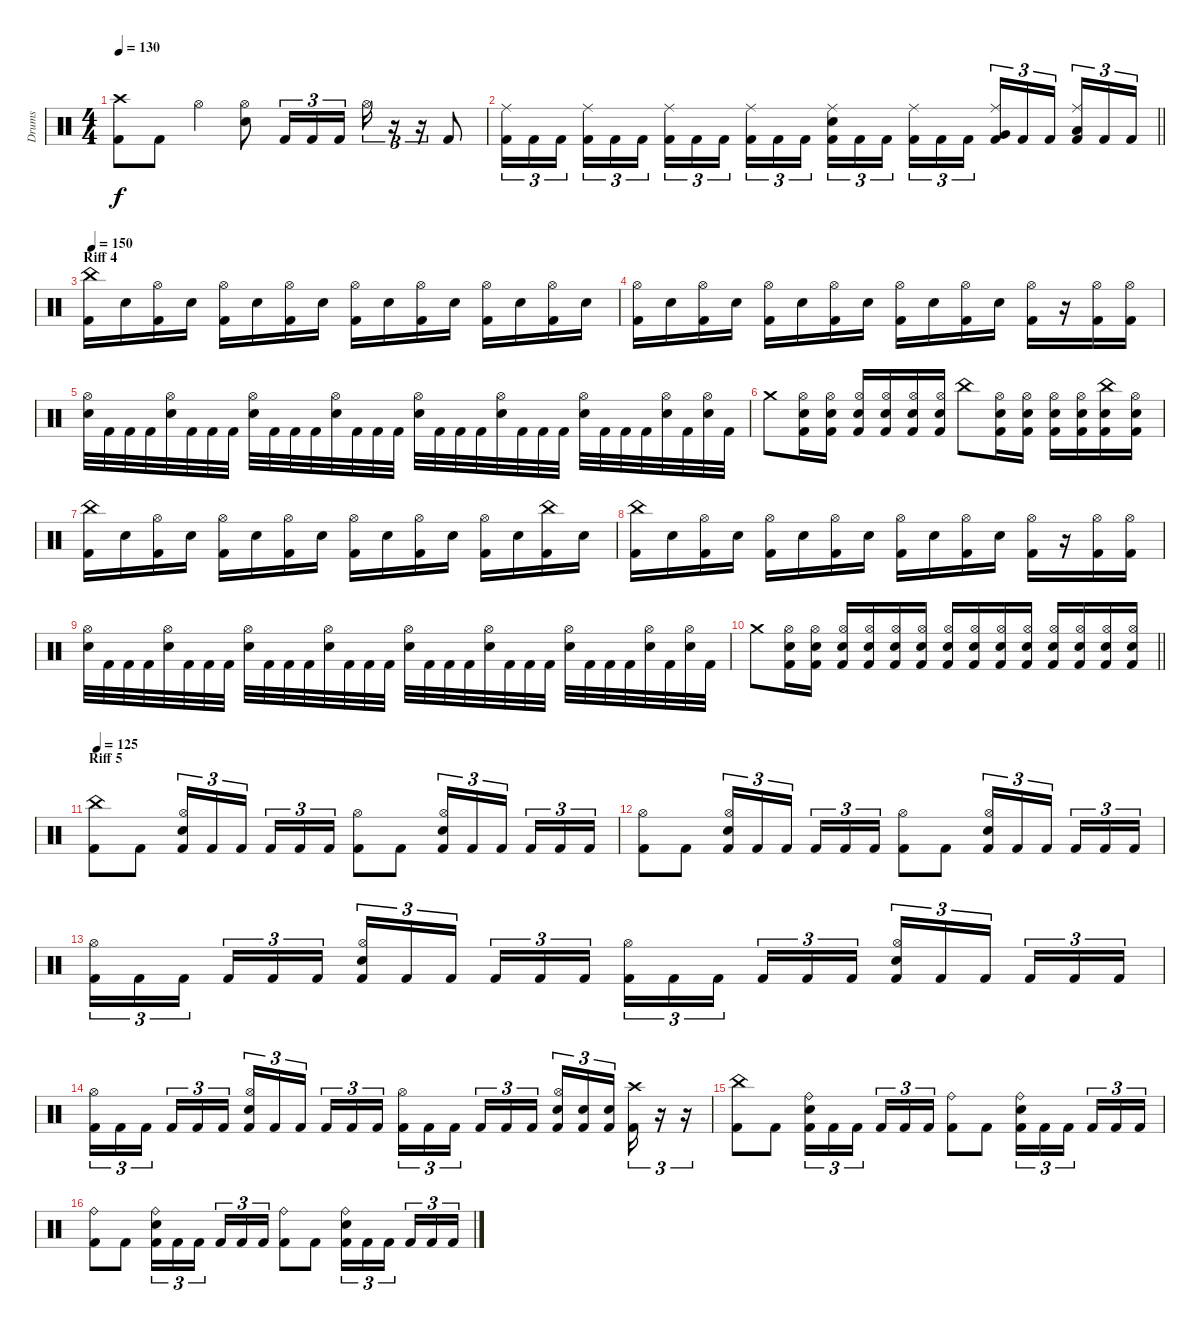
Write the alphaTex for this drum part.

\track ("Drums" "Drums") {instrument percussion}
\staff {score}
\articulation defaults
\ts (4 4)
\tempo 130
\clef neutral
\ks c
("Crash high (hit)" "Kick (hit) 2").8{dy f} "Kick (hit) 2".8 "Hi-Hat (open)".4 ("Hi-Hat (open)" "Snare (hit) 2").8 "Kick (hit) 2".16{tu (3 2)} "Kick (hit) 2".16{tu (3 2)} "Kick (hit) 2".16{tu (3 2)} "Hi-Hat (open)".16{tu (3 2)} r.16{tu (3 2)} r.16{tu (3 2)} "Kick (hit) 2".8 |
\barLineRight lightlight
("Ride (middle)" "Kick (hit) 2").16{tu (3 2)} "Kick (hit) 2".16{tu (3 2)} "Kick (hit) 2".16{tu (3 2) beam splitsecondary} ("Ride (middle)" "Kick (hit) 2").16{tu (3 2)} "Kick (hit) 2".16{tu (3 2)} "Kick (hit) 2".16{tu (3 2)} ("Ride (middle)" "Kick (hit) 2").16{tu (3 2)} "Kick (hit) 2".16{tu (3 2)} "Kick (hit) 2".16{tu (3 2) beam splitsecondary} ("Ride (middle)" "Kick (hit) 2").16{tu (3 2)} "Kick (hit) 2".16{tu (3 2)} "Kick (hit) 2".16{tu (3 2)} ("Ride (middle)" "Snare (hit) 2" "Kick (hit) 2").16{tu (3 2)} "Kick (hit) 2".16{tu (3 2)} "Kick (hit) 2".16{tu (3 2) beam splitsecondary} ("Ride (middle)" "Kick (hit) 2").16{tu (3 2)} "Kick (hit) 2".16{tu (3 2)} "Kick (hit) 2".16{tu (3 2)} ("Ride (middle)" "Very Low Tom (hit)" "Kick (hit) 2").16{tu (3 2)} "Kick (hit) 2".16{tu (3 2)} "Kick (hit) 2".16{tu (3 2) beam splitsecondary} ("Ride (middle)" "Low Floor Tom (hit)" "Kick (hit) 2").16{tu (3 2)} "Kick (hit) 2".16{tu (3 2)} "Kick (hit) 2".16{tu (3 2)} |
\section ("" "Riff 4")
\tempo 150
("China (hit)" "Kick (hit) 2").16 "Snare (hit) 2".16 ("Hi-Hat (open)" "Kick (hit) 2").16 "Snare (hit) 2".16 ("Hi-Hat (open)" "Kick (hit) 2").16 "Snare (hit) 2".16 ("Hi-Hat (open)" "Kick (hit) 2").16 "Snare (hit) 2".16 ("Hi-Hat (open)" "Kick (hit) 2").16 "Snare (hit) 2".16 ("Hi-Hat (open)" "Kick (hit) 2").16 "Snare (hit) 2".16 ("Hi-Hat (open)" "Kick (hit) 2").16 "Snare (hit) 2".16 ("Hi-Hat (open)" "Kick (hit) 2").16 "Snare (hit) 2".16 |
("Hi-Hat (open)" "Kick (hit) 2").16 "Snare (hit) 2".16 ("Hi-Hat (open)" "Kick (hit) 2").16 "Snare (hit) 2".16 ("Hi-Hat (open)" "Kick (hit) 2").16 "Snare (hit) 2".16 ("Hi-Hat (open)" "Kick (hit) 2").16 "Snare (hit) 2".16 ("Hi-Hat (open)" "Kick (hit) 2").16 "Snare (hit) 2".16 ("Hi-Hat (open)" "Kick (hit) 2").16 "Snare (hit) 2".16 ("Hi-Hat (open)" "Kick (hit) 2").16 r.16 ("Hi-Hat (open)" "Kick (hit) 2").16 ("Hi-Hat (open)" "Kick (hit) 2").16 |
("Hi-Hat (open)" "Snare (hit) 2").32 "Kick (hit) 2".32 "Kick (hit) 2".32 "Kick (hit) 2".32 ("Hi-Hat (open)" "Snare (hit) 2").32 "Kick (hit) 2".32 "Kick (hit) 2".32 "Kick (hit) 2".32 ("Hi-Hat (open)" "Snare (hit) 2").32 "Kick (hit) 2".32 "Kick (hit) 2".32 "Kick (hit) 2".32 ("Hi-Hat (open)" "Snare (hit) 2").32 "Kick (hit) 2".32 "Kick (hit) 2".32 "Kick (hit) 2".32 ("Hi-Hat (open)" "Snare (hit) 2").32 "Kick (hit) 2".32 "Kick (hit) 2".32 "Kick (hit) 2".32 ("Hi-Hat (open)" "Snare (hit) 2").32 "Kick (hit) 2".32 "Kick (hit) 2".32 "Kick (hit) 2".32 ("Hi-Hat (open)" "Snare (hit) 2").32 "Kick (hit) 2".32 "Kick (hit) 2".32 "Kick (hit) 2".32 ("Hi-Hat (open)" "Snare (hit) 2").32 "Kick (hit) 2".32 ("Hi-Hat (open)" "Snare (hit) 2").32 "Kick (hit) 2".32 |
"Crash medium (hit)".8 ("Hi-Hat (open)" "Snare (hit) 2" "Kick (hit) 2").16 ("Hi-Hat (open)" "Snare (hit) 2" "Kick (hit) 2").16 ("Hi-Hat (open)" "Snare (hit) 2" "Kick (hit) 2").16 ("Hi-Hat (open)" "Snare (hit) 2" "Kick (hit) 2").16 ("Hi-Hat (open)" "Snare (hit) 2" "Kick (hit) 2").16 ("Hi-Hat (open)" "Snare (hit) 2" "Kick (hit) 2").16 "China (hit)".8 ("Hi-Hat (open)" "Snare (hit) 2" "Kick (hit) 2").16 ("Hi-Hat (open)" "Snare (hit) 2" "Kick (hit) 2").16 ("Hi-Hat (open)" "Snare (hit) 2" "Kick (hit) 2").16 ("Hi-Hat (open)" "Snare (hit) 2" "Kick (hit) 2").16 ("China (hit)" "Snare (hit) 2" "Kick (hit) 2").16 ("Hi-Hat (open)" "Snare (hit) 2" "Kick (hit) 2").16 |
("China (hit)" "Kick (hit) 2").16 "Snare (hit) 2".16 ("Hi-Hat (open)" "Kick (hit) 2").16 "Snare (hit) 2".16 ("Hi-Hat (open)" "Kick (hit) 2").16 "Snare (hit) 2".16 ("Hi-Hat (open)" "Kick (hit) 2").16 "Snare (hit) 2".16 ("Hi-Hat (open)" "Kick (hit) 2").16 "Snare (hit) 2".16 ("Hi-Hat (open)" "Kick (hit) 2").16 "Snare (hit) 2".16 ("Hi-Hat (open)" "Kick (hit) 2").16 "Snare (hit) 2".16 ("China (hit)" "Kick (hit) 2").16 "Snare (hit) 2".16 |
("China (hit)" "Kick (hit) 2").16 "Snare (hit) 2".16 ("Hi-Hat (open)" "Kick (hit) 2").16 "Snare (hit) 2".16 ("Hi-Hat (open)" "Kick (hit) 2").16 "Snare (hit) 2".16 ("Hi-Hat (open)" "Kick (hit) 2").16 "Snare (hit) 2".16 ("Hi-Hat (open)" "Kick (hit) 2").16 "Snare (hit) 2".16 ("Hi-Hat (open)" "Kick (hit) 2").16 "Snare (hit) 2".16 ("Hi-Hat (open)" "Kick (hit) 2").16 r.16 ("Hi-Hat (open)" "Kick (hit) 2").16 ("Hi-Hat (open)" "Kick (hit) 2").16 |
("Hi-Hat (open)" "Snare (hit) 2").32 "Kick (hit) 2".32 "Kick (hit) 2".32 "Kick (hit) 2".32 ("Hi-Hat (open)" "Snare (hit) 2").32 "Kick (hit) 2".32 "Kick (hit) 2".32 "Kick (hit) 2".32 ("Hi-Hat (open)" "Snare (hit) 2").32 "Kick (hit) 2".32 "Kick (hit) 2".32 "Kick (hit) 2".32 ("Hi-Hat (open)" "Snare (hit) 2").32 "Kick (hit) 2".32 "Kick (hit) 2".32 "Kick (hit) 2".32 ("Hi-Hat (open)" "Snare (hit) 2").32 "Kick (hit) 2".32 "Kick (hit) 2".32 "Kick (hit) 2".32 ("Hi-Hat (open)" "Snare (hit) 2").32 "Kick (hit) 2".32 "Kick (hit) 2".32 "Kick (hit) 2".32 ("Hi-Hat (open)" "Snare (hit) 2").32 "Kick (hit) 2".32 "Kick (hit) 2".32 "Kick (hit) 2".32 ("Hi-Hat (open)" "Snare (hit) 2").32 "Kick (hit) 2".32 ("Hi-Hat (open)" "Snare (hit) 2").32 "Kick (hit) 2".32 |
\barLineRight lightlight "Crash medium (hit)".8
("Hi-Hat (open)" "Snare (hit) 2" "Kick (hit) 2").16 ("Hi-Hat (open)" "Snare (hit) 2" "Kick (hit) 2").16 ("Hi-Hat (open)" "Snare (hit) 2" "Kick (hit) 2").16 ("Hi-Hat (open)" "Snare (hit) 2" "Kick (hit) 2").16 ("Hi-Hat (open)" "Snare (hit) 2" "Kick (hit) 2").16 ("Hi-Hat (open)" "Snare (hit) 2" "Kick (hit) 2").16 ("Hi-Hat (open)" "Snare (hit) 2" "Kick (hit) 2").16 ("Hi-Hat (open)" "Snare (hit) 2" "Kick (hit) 2").16 ("Hi-Hat (open)" "Snare (hit) 2" "Kick (hit) 2").16 ("Hi-Hat (open)" "Snare (hit) 2" "Kick (hit) 2").16 ("Hi-Hat (open)" "Snare (hit) 2" "Kick (hit) 2").16 ("Hi-Hat (open)" "Snare (hit) 2" "Kick (hit) 2").16 ("Hi-Hat (open)" "Snare (hit) 2" "Kick (hit) 2").16 ("Hi-Hat (open)" "Snare (hit) 2" "Kick (hit) 2").16 |
\section ("" "Riff 5")
\tempo 125
("China (hit)" "Kick (hit) 2").8 "Kick (hit) 2".8 ("Hi-Hat (open)" "Snare (hit) 2" "Kick (hit) 2").16{tu (3 2)} "Kick (hit) 2".16{tu (3 2)} "Kick (hit) 2".16{tu (3 2) beam splitsecondary} "Kick (hit) 2".16{tu (3 2)} "Kick (hit) 2".16{tu (3 2)} "Kick (hit) 2".16{tu (3 2)} ("Hi-Hat (open)" "Kick (hit) 2").8 "Kick (hit) 2".8 ("Hi-Hat (open)" "Snare (hit) 2" "Kick (hit) 2").16{tu (3 2)} "Kick (hit) 2".16{tu (3 2)} "Kick (hit) 2".16{tu (3 2) beam splitsecondary} "Kick (hit) 2".16{tu (3 2)} "Kick (hit) 2".16{tu (3 2)} "Kick (hit) 2".16{tu (3 2)} |
("Hi-Hat (open)" "Kick (hit) 2").8 "Kick (hit) 2".8 ("Hi-Hat (open)" "Snare (hit) 2" "Kick (hit) 2").16{tu (3 2)} "Kick (hit) 2".16{tu (3 2)} "Kick (hit) 2".16{tu (3 2) beam splitsecondary} "Kick (hit) 2".16{tu (3 2)} "Kick (hit) 2".16{tu (3 2)} "Kick (hit) 2".16{tu (3 2)} ("Hi-Hat (open)" "Kick (hit) 2").8 "Kick (hit) 2".8 ("Hi-Hat (open)" "Snare (hit) 2" "Kick (hit) 2").16{tu (3 2)} "Kick (hit) 2".16{tu (3 2)} "Kick (hit) 2".16{tu (3 2) beam splitsecondary} "Kick (hit) 2".16{tu (3 2)} "Kick (hit) 2".16{tu (3 2)} "Kick (hit) 2".16{tu (3 2)} |
("Hi-Hat (open)" "Kick (hit) 2").16{tu (3 2)} "Kick (hit) 2".16{tu (3 2)} "Kick (hit) 2".16{tu (3 2) beam splitsecondary} "Kick (hit) 2".16{tu (3 2)} "Kick (hit) 2".16{tu (3 2)} "Kick (hit) 2".16{tu (3 2)} ("Hi-Hat (open)" "Snare (hit) 2" "Kick (hit) 2").16{tu (3 2)} "Kick (hit) 2".16{tu (3 2)} "Kick (hit) 2".16{tu (3 2) beam splitsecondary} "Kick (hit) 2".16{tu (3 2)} "Kick (hit) 2".16{tu (3 2)} "Kick (hit) 2".16{tu (3 2)} ("Hi-Hat (open)" "Kick (hit) 2").16{tu (3 2)} "Kick (hit) 2".16{tu (3 2)} "Kick (hit) 2".16{tu (3 2) beam splitsecondary} "Kick (hit) 2".16{tu (3 2)} "Kick (hit) 2".16{tu (3 2)} "Kick (hit) 2".16{tu (3 2)} ("Hi-Hat (open)" "Snare (hit) 2" "Kick (hit) 2").16{tu (3 2)} "Kick (hit) 2".16{tu (3 2)} "Kick (hit) 2".16{tu (3 2) beam splitsecondary} "Kick (hit) 2".16{tu (3 2)} "Kick (hit) 2".16{tu (3 2)} "Kick (hit) 2".16{tu (3 2)} |
("Hi-Hat (open)" "Kick (hit) 2").16{tu (3 2)} "Kick (hit) 2".16{tu (3 2)} "Kick (hit) 2".16{tu (3 2) beam splitsecondary} "Kick (hit) 2".16{tu (3 2)} "Kick (hit) 2".16{tu (3 2)} "Kick (hit) 2".16{tu (3 2)} ("Hi-Hat (open)" "Snare (hit) 2" "Kick (hit) 2").16{tu (3 2)} "Kick (hit) 2".16{tu (3 2)} "Kick (hit) 2".16{tu (3 2) beam splitsecondary} "Kick (hit) 2".16{tu (3 2)} "Kick (hit) 2".16{tu (3 2)} "Kick (hit) 2".16{tu (3 2)} ("Hi-Hat (open)" "Kick (hit) 2").16{tu (3 2)} "Kick (hit) 2".16{tu (3 2)} "Kick (hit) 2".16{tu (3 2) beam splitsecondary} "Kick (hit) 2".16{tu (3 2)} "Kick (hit) 2".16{tu (3 2)} "Kick (hit) 2".16{tu (3 2)} ("Hi-Hat (open)" "Snare (hit) 2" "Kick (hit) 2").16{tu (3 2)} ("Snare (hit) 2" "Kick (hit) 2").16{tu (3 2)} ("Snare (hit) 2" "Kick (hit) 2").16{tu (3 2) beam splitsecondary} ("Crash high (hit)" "Kick (hit) 2").16{tu (3 2)} r.16{tu (3 2)} r.16{tu (3 2)} |
("China (hit)" "Kick (hit) 2").8 "Kick (hit) 2".8 ("Ride (bell)" "Snare (hit) 2" "Kick (hit) 2").16{tu (3 2)} "Kick (hit) 2".16{tu (3 2)} "Kick (hit) 2".16{tu (3 2) beam splitsecondary} "Kick (hit) 2".16{tu (3 2)} "Kick (hit) 2".16{tu (3 2)} "Kick (hit) 2".16{tu (3 2)} ("Ride (bell)" "Kick (hit) 2").8 "Kick (hit) 2".8 ("Ride (bell)" "Snare (hit) 2" "Kick (hit) 2").16{tu (3 2)} "Kick (hit) 2".16{tu (3 2)} "Kick (hit) 2".16{tu (3 2) beam splitsecondary} "Kick (hit) 2".16{tu (3 2)} "Kick (hit) 2".16{tu (3 2)} "Kick (hit) 2".16{tu (3 2)} |
("Ride (bell)" "Kick (hit) 2").8 "Kick (hit) 2".8 ("Ride (bell)" "Snare (hit) 2" "Kick (hit) 2").16{tu (3 2)} "Kick (hit) 2".16{tu (3 2)} "Kick (hit) 2".16{tu (3 2) beam splitsecondary} "Kick (hit) 2".16{tu (3 2)} "Kick (hit) 2".16{tu (3 2)} "Kick (hit) 2".16{tu (3 2)} ("Ride (bell)" "Kick (hit) 2").8 "Kick (hit) 2".8 ("Ride (bell)" "Snare (hit) 2" "Kick (hit) 2").16{tu (3 2)} "Kick (hit) 2".16{tu (3 2)} "Kick (hit) 2".16{tu (3 2) beam splitsecondary} "Kick (hit) 2".16{tu (3 2)} "Kick (hit) 2".16{tu (3 2)} "Kick (hit) 2".16{tu (3 2)}
